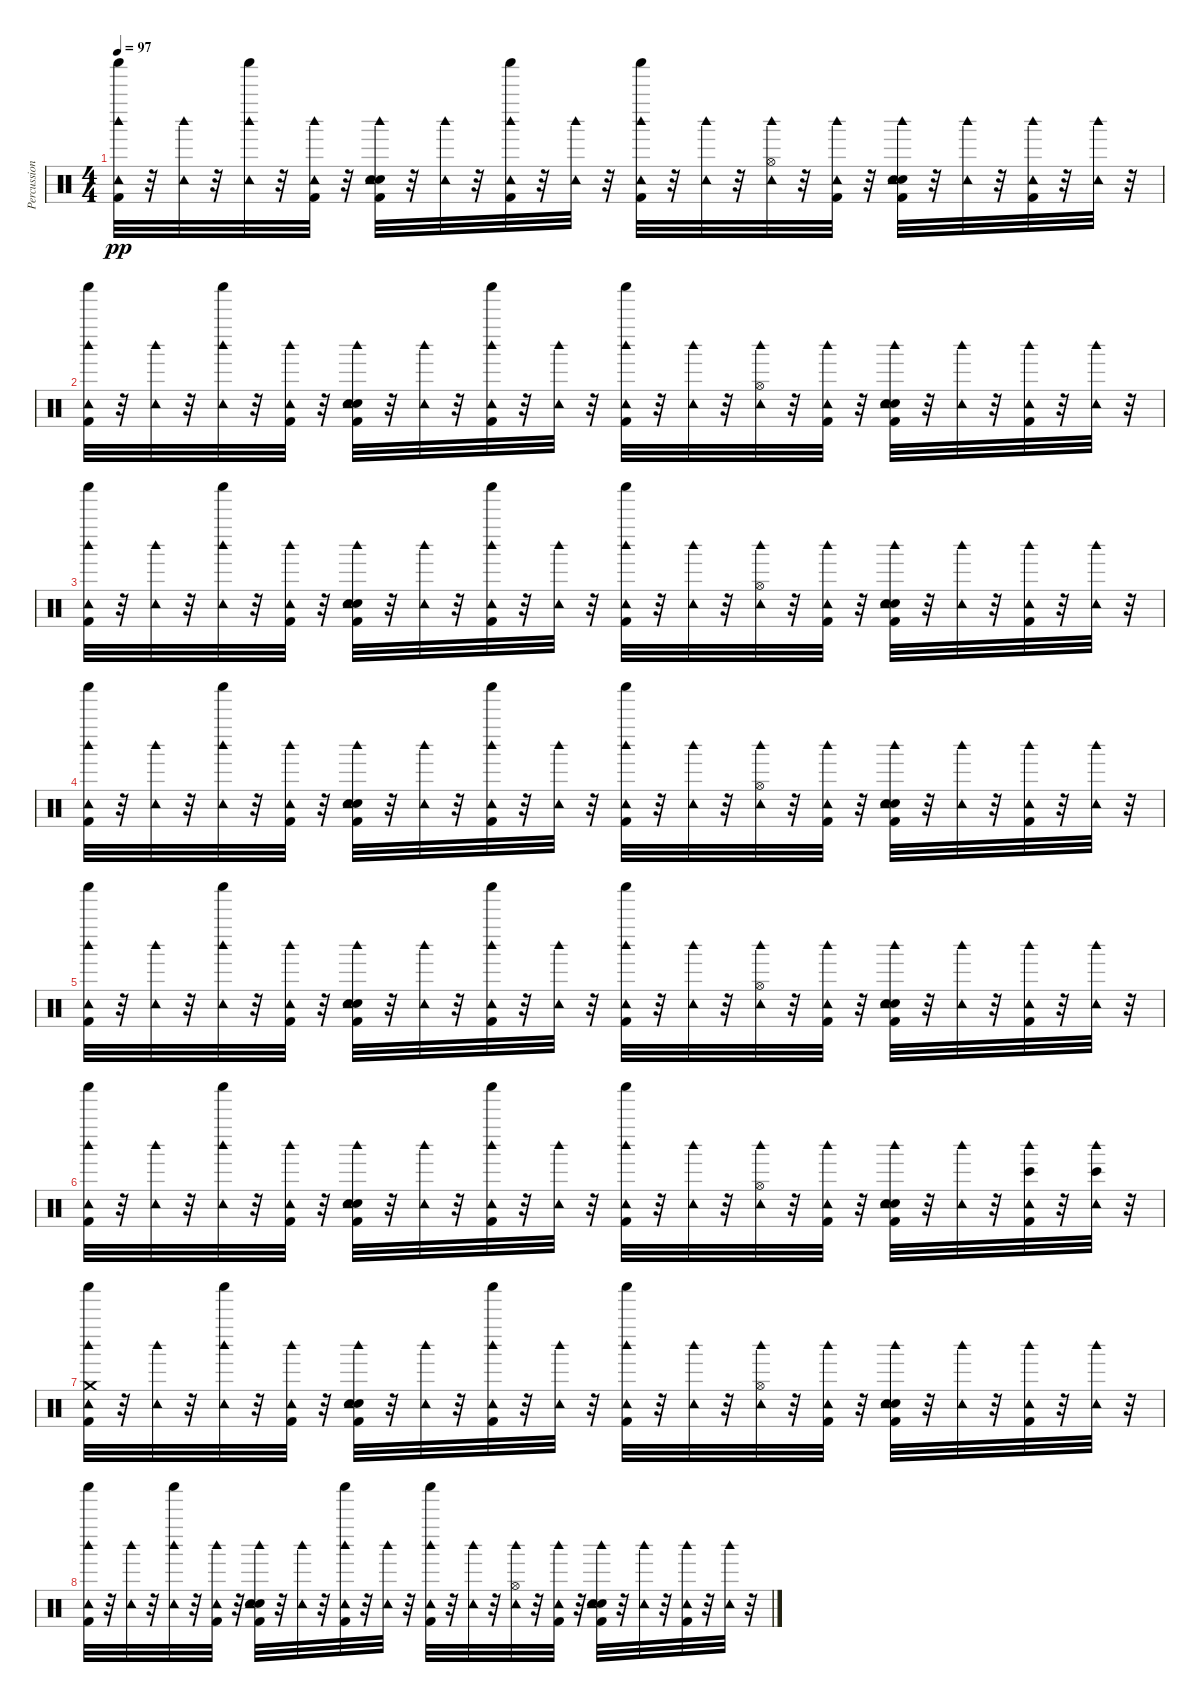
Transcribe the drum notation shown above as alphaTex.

\track ("Percussion" "Percussion") {instrument percussion}
\staff {score}
\articulation defaults
\ts (4 4)
\tempo 97
\clef neutral
\ks c
("Kick (hit) 2" "Tambourine (hit)" "Shaker (hit)" "Woodblock high (hit)").32{dy pp} r.32 ("Tambourine (hit)" "Woodblock high (hit)").32 r.32 ("Tambourine (hit)" "Shaker (hit)" "Woodblock high (hit)").32 r.32 ("Kick (hit) 2" "Tambourine (hit)" "Woodblock high (hit)").32 r.32 ("Kick (hit) 2" "Snare (hit) 2" "Hand Clap (hit)" "Tambourine (hit)" "Woodblock high (hit)").32 r.32 ("Tambourine (hit)" "Woodblock high (hit)").32 r.32 ("Kick (hit) 2" "Tambourine (hit)" "Shaker (hit)" "Woodblock high (hit)").32 r.32 ("Tambourine (hit)" "Woodblock high (hit)").32 r.32 ("Kick (hit) 2" "Tambourine (hit)" "Shaker (hit)" "Woodblock high (hit)").32 r.32 ("Tambourine (hit)" "Woodblock high (hit)").32 r.32 ("Hi-Hat (open)" "Tambourine (hit)" "Woodblock high (hit)").32 r.32 ("Kick (hit) 2" "Tambourine (hit)" "Woodblock high (hit)").32 r.32 ("Kick (hit) 2" "Snare (hit) 2" "Hand Clap (hit)" "Tambourine (hit)" "Woodblock high (hit)").32 r.32 ("Tambourine (hit)" "Woodblock high (hit)").32 r.32 ("Kick (hit) 2" "Tambourine (hit)" "Woodblock high (hit)").32 r.32 ("Tambourine (hit)" "Woodblock high (hit)").32 r.32 |
("Kick (hit) 2" "Tambourine (hit)" "Shaker (hit)" "Woodblock high (hit)").32 r.32 ("Tambourine (hit)" "Woodblock high (hit)").32 r.32 ("Tambourine (hit)" "Shaker (hit)" "Woodblock high (hit)").32 r.32 ("Kick (hit) 2" "Tambourine (hit)" "Woodblock high (hit)").32 r.32 ("Kick (hit) 2" "Snare (hit) 2" "Hand Clap (hit)" "Tambourine (hit)" "Woodblock high (hit)").32 r.32 ("Tambourine (hit)" "Woodblock high (hit)").32 r.32 ("Kick (hit) 2" "Tambourine (hit)" "Shaker (hit)" "Woodblock high (hit)").32 r.32 ("Tambourine (hit)" "Woodblock high (hit)").32 r.32 ("Kick (hit) 2" "Tambourine (hit)" "Shaker (hit)" "Woodblock high (hit)").32 r.32 ("Tambourine (hit)" "Woodblock high (hit)").32 r.32 ("Hi-Hat (open)" "Tambourine (hit)" "Woodblock high (hit)").32 r.32 ("Kick (hit) 2" "Tambourine (hit)" "Woodblock high (hit)").32 r.32 ("Kick (hit) 2" "Snare (hit) 2" "Hand Clap (hit)" "Tambourine (hit)" "Woodblock high (hit)").32 r.32 ("Tambourine (hit)" "Woodblock high (hit)").32 r.32 ("Kick (hit) 2" "Tambourine (hit)" "Woodblock high (hit)").32 r.32 ("Tambourine (hit)" "Woodblock high (hit)").32 r.32 |
("Kick (hit) 2" "Tambourine (hit)" "Shaker (hit)" "Woodblock high (hit)").32 r.32 ("Tambourine (hit)" "Woodblock high (hit)").32 r.32 ("Tambourine (hit)" "Shaker (hit)" "Woodblock high (hit)").32 r.32 ("Kick (hit) 2" "Tambourine (hit)" "Woodblock high (hit)").32 r.32 ("Kick (hit) 2" "Snare (hit) 2" "Hand Clap (hit)" "Tambourine (hit)" "Woodblock high (hit)").32 r.32 ("Tambourine (hit)" "Woodblock high (hit)").32 r.32 ("Kick (hit) 2" "Tambourine (hit)" "Shaker (hit)" "Woodblock high (hit)").32 r.32 ("Tambourine (hit)" "Woodblock high (hit)").32 r.32 ("Kick (hit) 2" "Tambourine (hit)" "Shaker (hit)" "Woodblock high (hit)").32 r.32 ("Tambourine (hit)" "Woodblock high (hit)").32 r.32 ("Hi-Hat (open)" "Tambourine (hit)" "Woodblock high (hit)").32 r.32 ("Kick (hit) 2" "Tambourine (hit)" "Woodblock high (hit)").32 r.32 ("Kick (hit) 2" "Snare (hit) 2" "Hand Clap (hit)" "Tambourine (hit)" "Woodblock high (hit)").32 r.32 ("Tambourine (hit)" "Woodblock high (hit)").32 r.32 ("Kick (hit) 2" "Tambourine (hit)" "Woodblock high (hit)").32 r.32 ("Tambourine (hit)" "Woodblock high (hit)").32 r.32 |
("Kick (hit) 2" "Tambourine (hit)" "Shaker (hit)" "Woodblock high (hit)").32 r.32 ("Tambourine (hit)" "Woodblock high (hit)").32 r.32 ("Tambourine (hit)" "Shaker (hit)" "Woodblock high (hit)").32 r.32 ("Kick (hit) 2" "Tambourine (hit)" "Woodblock high (hit)").32 r.32 ("Kick (hit) 2" "Snare (hit) 2" "Hand Clap (hit)" "Tambourine (hit)" "Woodblock high (hit)").32 r.32 ("Tambourine (hit)" "Woodblock high (hit)").32 r.32 ("Kick (hit) 2" "Tambourine (hit)" "Shaker (hit)" "Woodblock high (hit)").32 r.32 ("Tambourine (hit)" "Woodblock high (hit)").32 r.32 ("Kick (hit) 2" "Tambourine (hit)" "Shaker (hit)" "Woodblock high (hit)").32 r.32 ("Tambourine (hit)" "Woodblock high (hit)").32 r.32 ("Hi-Hat (open)" "Tambourine (hit)" "Woodblock high (hit)").32 r.32 ("Kick (hit) 2" "Tambourine (hit)" "Woodblock high (hit)").32 r.32 ("Kick (hit) 2" "Snare (hit) 2" "Hand Clap (hit)" "Tambourine (hit)" "Woodblock high (hit)").32 r.32 ("Tambourine (hit)" "Woodblock high (hit)").32 r.32 ("Kick (hit) 2" "Tambourine (hit)" "Woodblock high (hit)").32 r.32 ("Tambourine (hit)" "Woodblock high (hit)").32 r.32 |
("Kick (hit) 2" "Tambourine (hit)" "Shaker (hit)" "Woodblock high (hit)").32 r.32 ("Tambourine (hit)" "Woodblock high (hit)").32 r.32 ("Tambourine (hit)" "Shaker (hit)" "Woodblock high (hit)").32 r.32 ("Kick (hit) 2" "Tambourine (hit)" "Woodblock high (hit)").32 r.32 ("Kick (hit) 2" "Snare (hit) 2" "Hand Clap (hit)" "Tambourine (hit)" "Woodblock high (hit)").32 r.32 ("Tambourine (hit)" "Woodblock high (hit)").32 r.32 ("Kick (hit) 2" "Tambourine (hit)" "Shaker (hit)" "Woodblock high (hit)").32 r.32 ("Tambourine (hit)" "Woodblock high (hit)").32 r.32 ("Kick (hit) 2" "Tambourine (hit)" "Shaker (hit)" "Woodblock high (hit)").32 r.32 ("Tambourine (hit)" "Woodblock high (hit)").32 r.32 ("Hi-Hat (open)" "Tambourine (hit)" "Woodblock high (hit)").32 r.32 ("Kick (hit) 2" "Tambourine (hit)" "Woodblock high (hit)").32 r.32 ("Kick (hit) 2" "Snare (hit) 2" "Hand Clap (hit)" "Tambourine (hit)" "Woodblock high (hit)").32 r.32 ("Tambourine (hit)" "Woodblock high (hit)").32 r.32 ("Kick (hit) 2" "Tambourine (hit)" "Woodblock high (hit)").32 r.32 ("Tambourine (hit)" "Woodblock high (hit)").32 r.32 |
("Kick (hit) 2" "Tambourine (hit)" "Shaker (hit)" "Woodblock high (hit)").32 r.32 ("Tambourine (hit)" "Woodblock high (hit)").32 r.32 ("Tambourine (hit)" "Shaker (hit)" "Woodblock high (hit)").32 r.32 ("Kick (hit) 2" "Tambourine (hit)" "Woodblock high (hit)").32 r.32 ("Kick (hit) 2" "Snare (hit) 2" "Hand Clap (hit)" "Tambourine (hit)" "Woodblock high (hit)").32 r.32 ("Tambourine (hit)" "Woodblock high (hit)").32 r.32 ("Kick (hit) 2" "Tambourine (hit)" "Shaker (hit)" "Woodblock high (hit)").32 r.32 ("Tambourine (hit)" "Woodblock high (hit)").32 r.32 ("Kick (hit) 2" "Tambourine (hit)" "Shaker (hit)" "Woodblock high (hit)").32 r.32 ("Tambourine (hit)" "Woodblock high (hit)").32 r.32 ("Hi-Hat (open)" "Tambourine (hit)" "Woodblock high (hit)").32 r.32 ("Kick (hit) 2" "Tambourine (hit)" "Woodblock high (hit)").32 r.32 ("Kick (hit) 2" "Snare (hit) 2" "Hand Clap (hit)" "Tambourine (hit)" "Woodblock high (hit)").32 r.32 ("Tambourine (hit)" "Woodblock high (hit)").32 r.32 ("Kick (hit) 2" "Tambourine (hit)" "Bongo High (hit)" "Woodblock high (hit)").32 r.32 ("Tambourine (hit)" "Bongo High (hit)" "Woodblock high (hit)").32 r.32 |
("Kick (hit) 2" "Tambourine (hit)" "Crash medium (hit)" "Shaker (hit)" "Woodblock high (hit)").32 r.32 ("Tambourine (hit)" "Woodblock high (hit)").32 r.32 ("Tambourine (hit)" "Shaker (hit)" "Woodblock high (hit)").32 r.32 ("Kick (hit) 2" "Tambourine (hit)" "Woodblock high (hit)").32 r.32 ("Kick (hit) 2" "Snare (hit) 2" "Hand Clap (hit)" "Tambourine (hit)" "Woodblock high (hit)").32 r.32 ("Tambourine (hit)" "Woodblock high (hit)").32 r.32 ("Kick (hit) 2" "Tambourine (hit)" "Shaker (hit)" "Woodblock high (hit)").32 r.32 ("Tambourine (hit)" "Woodblock high (hit)").32 r.32 ("Kick (hit) 2" "Tambourine (hit)" "Shaker (hit)" "Woodblock high (hit)").32 r.32 ("Tambourine (hit)" "Woodblock high (hit)").32 r.32 ("Hi-Hat (open)" "Tambourine (hit)" "Woodblock high (hit)").32 r.32 ("Kick (hit) 2" "Tambourine (hit)" "Woodblock high (hit)").32 r.32 ("Kick (hit) 2" "Snare (hit) 2" "Hand Clap (hit)" "Tambourine (hit)" "Woodblock high (hit)").32 r.32 ("Tambourine (hit)" "Woodblock high (hit)").32 r.32 ("Kick (hit) 2" "Tambourine (hit)" "Woodblock high (hit)").32 r.32 ("Tambourine (hit)" "Woodblock high (hit)").32 r.32 |
("Kick (hit) 2" "Tambourine (hit)" "Shaker (hit)" "Woodblock high (hit)").32 r.32 ("Tambourine (hit)" "Woodblock high (hit)").32 r.32 ("Tambourine (hit)" "Shaker (hit)" "Woodblock high (hit)").32 r.32 ("Kick (hit) 2" "Tambourine (hit)" "Woodblock high (hit)").32 r.32 ("Kick (hit) 2" "Snare (hit) 2" "Hand Clap (hit)" "Tambourine (hit)" "Woodblock high (hit)").32 r.32 ("Tambourine (hit)" "Woodblock high (hit)").32 r.32 ("Kick (hit) 2" "Tambourine (hit)" "Shaker (hit)" "Woodblock high (hit)").32 r.32 ("Tambourine (hit)" "Woodblock high (hit)").32 r.32 ("Kick (hit) 2" "Tambourine (hit)" "Shaker (hit)" "Woodblock high (hit)").32 r.32 ("Tambourine (hit)" "Woodblock high (hit)").32 r.32 ("Hi-Hat (open)" "Tambourine (hit)" "Woodblock high (hit)").32 r.32 ("Kick (hit) 2" "Tambourine (hit)" "Woodblock high (hit)").32 r.32 ("Kick (hit) 2" "Snare (hit) 2" "Hand Clap (hit)" "Tambourine (hit)" "Woodblock high (hit)").32 r.32 ("Tambourine (hit)" "Woodblock high (hit)").32 r.32 ("Kick (hit) 2" "Tambourine (hit)" "Woodblock high (hit)").32 r.32 ("Tambourine (hit)" "Woodblock high (hit)").32 r.32
